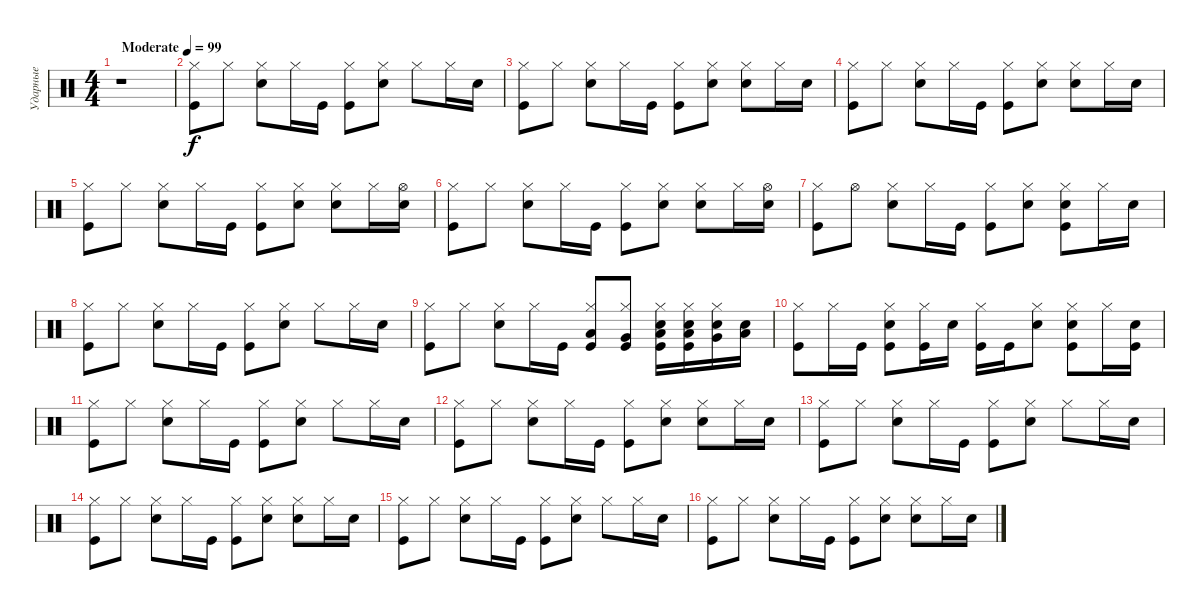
\track ("Ударные" "Ударные") {instrument percussion}
\staff {score}
\articulation defaults
\ts (4 4)
\tempo (99 "Moderate")
\clef neutral
\ks c
r.1{dy f} |
("Kick (hit)" "Hi-Hat (closed)").8 "Hi-Hat (closed)".8 ("Snare (hit) 2" "Hi-Hat (closed)").8 "Hi-Hat (closed)".16 "Kick (hit)".16 ("Hi-Hat (closed)" "Kick (hit)").8 ("Snare (hit) 2" "Hi-Hat (closed)").8 "Hi-Hat (closed)".8 "Hi-Hat (closed)".16 "Snare (hit) 2".16 |
("Kick (hit)" "Hi-Hat (closed)").8 "Hi-Hat (closed)".8 ("Snare (hit) 2" "Hi-Hat (closed)").8 "Hi-Hat (closed)".16 "Kick (hit)".16 ("Hi-Hat (closed)" "Kick (hit)").8 ("Snare (hit) 2" "Hi-Hat (closed)").8 ("Hi-Hat (closed)" "Snare (hit) 2").8 "Hi-Hat (closed)".16 "Snare (hit) 2".16 |
("Kick (hit)" "Hi-Hat (closed)").8 "Hi-Hat (closed)".8 ("Snare (hit) 2" "Hi-Hat (closed)").8 "Hi-Hat (closed)".16 "Kick (hit)".16 ("Hi-Hat (closed)" "Kick (hit)").8 ("Snare (hit) 2" "Hi-Hat (closed)").8 ("Hi-Hat (closed)" "Snare (hit) 2").8 "Hi-Hat (closed)".16 "Snare (hit) 2".16 |
("Kick (hit)" "Hi-Hat (closed)").8 "Hi-Hat (closed)".8 ("Snare (hit) 2" "Hi-Hat (closed)").8 "Hi-Hat (closed)".16 "Kick (hit)".16 ("Hi-Hat (closed)" "Kick (hit)").8 ("Snare (hit) 2" "Hi-Hat (closed)").8 ("Hi-Hat (closed)" "Snare (hit) 2").8 "Hi-Hat (closed)".16 ("Snare (hit) 2" "Hi-Hat (open)").16 |
("Kick (hit)" "Hi-Hat (closed)").8 "Hi-Hat (closed)".8 ("Snare (hit) 2" "Hi-Hat (closed)").8 "Hi-Hat (closed)".16 "Kick (hit)".16 ("Hi-Hat (closed)" "Kick (hit)").8 ("Snare (hit) 2" "Hi-Hat (closed)").8 ("Hi-Hat (closed)" "Snare (hit) 2").8 "Hi-Hat (closed)".16 ("Snare (hit) 2" "Hi-Hat (open)").16 |
("Kick (hit)" "Hi-Hat (closed)").8 "Hi-Hat (open)".8 ("Snare (hit) 2" "Hi-Hat (closed)").8 "Hi-Hat (closed)".16 "Kick (hit)".16 ("Hi-Hat (closed)" "Kick (hit)").8 ("Snare (hit) 2" "Hi-Hat (closed)").8 ("Hi-Hat (closed)" "Kick (hit)" "Snare (hit) 2").8 "Hi-Hat (closed)".16 "Snare (hit) 2".16 |
("Kick (hit)" "Hi-Hat (closed)").8 "Hi-Hat (closed)".8 ("Snare (hit) 2" "Hi-Hat (closed)").8 "Hi-Hat (closed)".16 "Kick (hit)".16 ("Hi-Hat (closed)" "Kick (hit)").8 ("Snare (hit) 2" "Hi-Hat (closed)").8 "Hi-Hat (closed)".8 "Hi-Hat (closed)".16 "Snare (hit) 2".16 |
("Kick (hit)" "Hi-Hat (closed)").8 "Hi-Hat (closed)".8 ("Snare (hit) 2" "Hi-Hat (closed)").8 "Hi-Hat (closed)".16 "Kick (hit)".16 ("Hi-Hat (closed)" "Kick (hit)" "Low Tom (hit)").8 ("Hi-Hat (closed)" "Very Low Tom (hit)" "Kick (hit)").8 ("Hi-Hat (closed)" "Kick (hit)" "Snare (hit) 2" "Low Floor Tom (hit)").16 ("Hi-Hat (closed)" "Snare (hit) 2" "Kick (hit)" "Low Tom (hit)").16 ("Hi-Hat (closed)" "Very Low Tom (hit)" "Snare (hit) 2").16 ("Low Floor Tom (hit)" "Snare (hit) 2").16 |
("Hi-Hat (closed)" "Kick (hit)").8 "Hi-Hat (closed)".16 "Kick (hit)".16 ("Hi-Hat (closed)" "Snare (hit) 2" "Kick (hit)").8 ("Hi-Hat (closed)" "Kick (hit)").16 "Snare (hit) 2".16 ("Hi-Hat (closed)" "Kick (hit)").16 "Kick (hit)".16 ("Hi-Hat (closed)" "Snare (hit) 2").8 ("Hi-Hat (closed)" "Snare (hit) 2" "Kick (hit)").8 "Hi-Hat (closed)".16 ("Snare (hit) 2" "Kick (hit)").16 |
("Kick (hit)" "Hi-Hat (closed)").8 "Hi-Hat (closed)".8 ("Snare (hit) 2" "Hi-Hat (closed)").8 "Hi-Hat (closed)".16 "Kick (hit)".16 ("Hi-Hat (closed)" "Kick (hit)").8 ("Snare (hit) 2" "Hi-Hat (closed)").8 "Hi-Hat (closed)".8 "Hi-Hat (closed)".16 "Snare (hit) 2".16 |
("Kick (hit)" "Hi-Hat (closed)").8 "Hi-Hat (closed)".8 ("Snare (hit) 2" "Hi-Hat (closed)").8 "Hi-Hat (closed)".16 "Kick (hit)".16 ("Hi-Hat (closed)" "Kick (hit)").8 ("Snare (hit) 2" "Hi-Hat (closed)").8 ("Hi-Hat (closed)" "Snare (hit) 2").8 "Hi-Hat (closed)".16 "Snare (hit) 2".16 |
("Kick (hit)" "Hi-Hat (closed)").8 "Hi-Hat (closed)".8 ("Snare (hit) 2" "Hi-Hat (closed)").8 "Hi-Hat (closed)".16 "Kick (hit)".16 ("Hi-Hat (closed)" "Kick (hit)").8 ("Snare (hit) 2" "Hi-Hat (closed)").8 "Hi-Hat (closed)".8 "Hi-Hat (closed)".16 "Snare (hit) 2".16 |
("Kick (hit)" "Hi-Hat (closed)").8 "Hi-Hat (closed)".8 ("Snare (hit) 2" "Hi-Hat (closed)").8 "Hi-Hat (closed)".16 "Kick (hit)".16 ("Hi-Hat (closed)" "Kick (hit)").8 ("Snare (hit) 2" "Hi-Hat (closed)").8 ("Hi-Hat (closed)" "Snare (hit) 2").8 "Hi-Hat (closed)".16 "Snare (hit) 2".16 |
("Kick (hit)" "Hi-Hat (closed)").8 "Hi-Hat (closed)".8 ("Snare (hit) 2" "Hi-Hat (closed)").8 "Hi-Hat (closed)".16 "Kick (hit)".16 ("Hi-Hat (closed)" "Kick (hit)").8 ("Snare (hit) 2" "Hi-Hat (closed)").8 "Hi-Hat (closed)".8 "Hi-Hat (closed)".16 "Snare (hit) 2".16 |
("Kick (hit)" "Hi-Hat (closed)").8 "Hi-Hat (closed)".8 ("Snare (hit) 2" "Hi-Hat (closed)").8 "Hi-Hat (closed)".16 "Kick (hit)".16 ("Hi-Hat (closed)" "Kick (hit)").8 ("Snare (hit) 2" "Hi-Hat (closed)").8 ("Hi-Hat (closed)" "Snare (hit) 2").8 "Hi-Hat (closed)".16 "Snare (hit) 2".16
